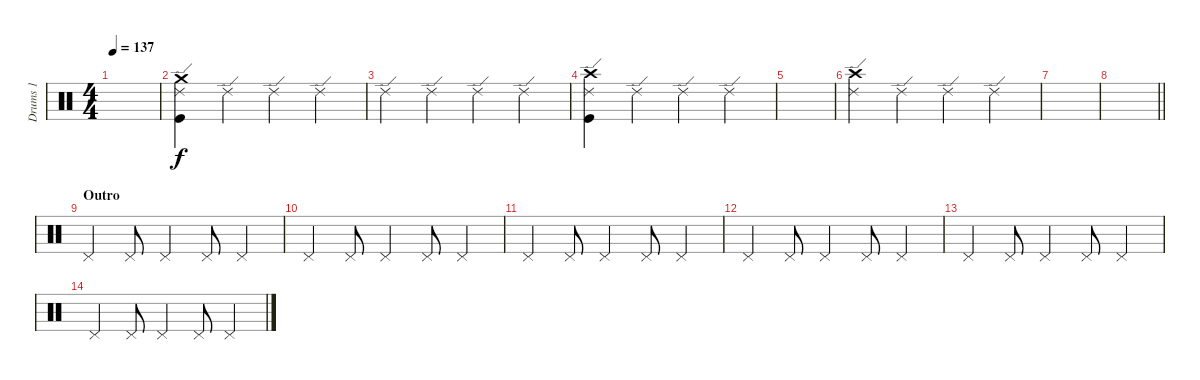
\track ("Drums 1" "Drums 1") {instrument percussion}
\staff {score}
\articulation defaults
\ts (4 4)
\tempo 137
\clef neutral
\ks c
|
("Crash medium (hit)" "Ride (edge) 2" "Kick (hit)").4 "Ride (edge) 2".4 "Ride (edge) 2".4 "Ride (edge) 2".4 |
"Ride (edge) 2".4 "Ride (edge) 2".4 "Ride (edge) 2".4 "Ride (edge) 2".4 |
("Crash high (hit)" "Ride (edge) 2" "Kick (hit)").4 "Ride (edge) 2".4 "Ride (edge) 2".4 "Ride (edge) 2".4 |
|
("Crash high (hit)" "Ride (edge) 2").4 "Ride (edge) 2".4 "Ride (edge) 2".4 "Ride (edge) 2".4 |
|
\barLineRight lightlight
|
\section ("" "Outro")
"Pedal Hi-Hat (hit)".4 "Pedal Hi-Hat (hit)".8 "Pedal Hi-Hat (hit)".4 "Pedal Hi-Hat (hit)".8 "Pedal Hi-Hat (hit)".4 |
"Pedal Hi-Hat (hit)".4 "Pedal Hi-Hat (hit)".8 "Pedal Hi-Hat (hit)".4 "Pedal Hi-Hat (hit)".8 "Pedal Hi-Hat (hit)".4 |
"Pedal Hi-Hat (hit)".4 "Pedal Hi-Hat (hit)".8 "Pedal Hi-Hat (hit)".4 "Pedal Hi-Hat (hit)".8 "Pedal Hi-Hat (hit)".4 |
"Pedal Hi-Hat (hit)".4 "Pedal Hi-Hat (hit)".8 "Pedal Hi-Hat (hit)".4 "Pedal Hi-Hat (hit)".8 "Pedal Hi-Hat (hit)".4 |
"Pedal Hi-Hat (hit)".4 "Pedal Hi-Hat (hit)".8 "Pedal Hi-Hat (hit)".4 "Pedal Hi-Hat (hit)".8 "Pedal Hi-Hat (hit)".4 |
"Pedal Hi-Hat (hit)".4 "Pedal Hi-Hat (hit)".8 "Pedal Hi-Hat (hit)".4 "Pedal Hi-Hat (hit)".8 "Pedal Hi-Hat (hit)".4
